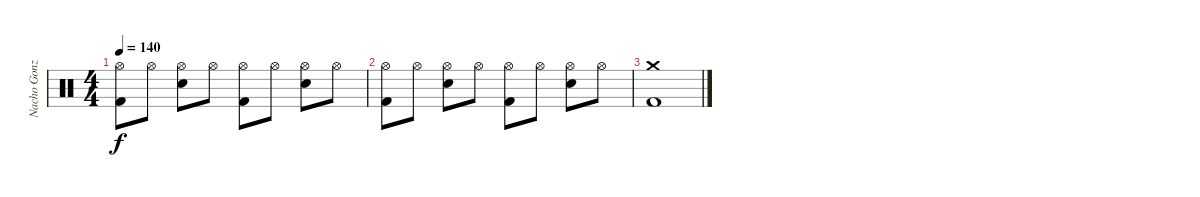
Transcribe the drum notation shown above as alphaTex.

\track ("Nacho Gonzalez" "Nacho Gonz") {instrument percussion}
\staff {score}
\articulation defaults
\ts (4 4)
\tempo 140
\clef neutral
\ks c
("Hi-Hat (open)" "Kick (hit) 2").8{dy f} "Hi-Hat (open)".8 ("Hi-Hat (open)" "Electric Snare (hit)").8 "Hi-Hat (open)".8 ("Hi-Hat (open)" "Kick (hit) 2").8 "Hi-Hat (open)".8 ("Hi-Hat (open)" "Electric Snare (hit)").8 "Hi-Hat (open)".8 |
("Hi-Hat (open)" "Kick (hit) 2").8 "Hi-Hat (open)".8 ("Hi-Hat (open)" "Electric Snare (hit)").8 "Hi-Hat (open)".8 ("Hi-Hat (open)" "Kick (hit) 2").8 "Hi-Hat (open)".8 ("Hi-Hat (open)" "Electric Snare (hit)").8 "Hi-Hat (open)".8 |
("Crash medium (hit)" "Kick (hit) 2").1
